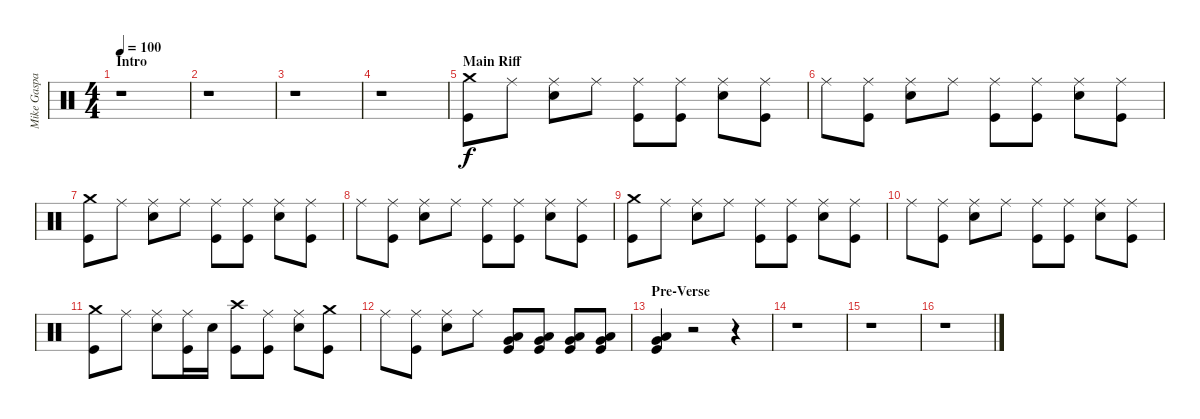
\track ("Mike Gaspar" "Mike Gaspa") {instrument percussion}
\staff {score}
\articulation defaults
\ts (4 4)
\section ("" "Intro")
\tempo 100
\clef neutral
\ks c
r.1{dy f} |
r.1 |
r.1 |
r.1 |
\section ("" "Main Riff")
("Crash medium (hit)" "Kick (hit)").8 "Ride (middle)".8 ("Ride (middle)" "Electric Snare (hit)").8 "Ride (middle)".8 ("Ride (middle)" "Kick (hit)").8 ("Ride (middle)" "Kick (hit)").8 ("Ride (middle)" "Electric Snare (hit)").8 ("Ride (middle)" "Kick (hit)").8 |
"Ride (middle)".8 ("Ride (middle)" "Kick (hit)").8 ("Ride (middle)" "Electric Snare (hit)").8 "Ride (middle)".8 ("Ride (middle)" "Kick (hit)").8 ("Ride (middle)" "Kick (hit)").8 ("Ride (middle)" "Electric Snare (hit)").8 ("Ride (middle)" "Kick (hit)").8 |
("Crash medium (hit)" "Kick (hit)").8 "Ride (middle)".8 ("Ride (middle)" "Electric Snare (hit)").8 "Ride (middle)".8 ("Ride (middle)" "Kick (hit)").8 ("Ride (middle)" "Kick (hit)").8 ("Ride (middle)" "Electric Snare (hit)").8 ("Ride (middle)" "Kick (hit)").8 |
"Ride (middle)".8 ("Ride (middle)" "Kick (hit)").8 ("Ride (middle)" "Electric Snare (hit)").8 "Ride (middle)".8 ("Ride (middle)" "Kick (hit)").8 ("Ride (middle)" "Kick (hit)").8 ("Ride (middle)" "Electric Snare (hit)").8 ("Ride (middle)" "Kick (hit)").8 |
("Crash medium (hit)" "Kick (hit)").8 "Ride (middle)".8 ("Ride (middle)" "Electric Snare (hit)").8 "Ride (middle)".8 ("Ride (middle)" "Kick (hit)").8 ("Ride (middle)" "Kick (hit)").8 ("Ride (middle)" "Electric Snare (hit)").8 ("Ride (middle)" "Kick (hit)").8 |
"Ride (middle)".8 ("Ride (middle)" "Kick (hit)").8 ("Ride (middle)" "Electric Snare (hit)").8 "Ride (middle)".8 ("Ride (middle)" "Kick (hit)").8 ("Ride (middle)" "Kick (hit)").8 ("Ride (middle)" "Electric Snare (hit)").8 ("Ride (middle)" "Kick (hit)").8 |
("Crash medium (hit)" "Kick (hit)").8 "Ride (middle)".8 ("Ride (middle)" "Electric Snare (hit)").8 ("Ride (middle)" "Kick (hit)").16 "Electric Snare (hit)".16 ("Crash high (hit)" "Kick (hit)").8 ("Ride (middle)" "Kick (hit)").8 ("Ride (middle)" "Electric Snare (hit)").8 ("Crash medium (hit)" "Kick (hit)").8 |
"Ride (middle)".8 ("Ride (middle)" "Kick (hit)").8 ("Ride (middle)" "Electric Snare (hit)").8 "Ride (middle)".8 ("Very Low Tom (hit)" "Low Tom (hit)" "Kick (hit)").8 ("Very Low Tom (hit)" "Low Tom (hit)" "Kick (hit)").8 ("Very Low Tom (hit)" "Low Tom (hit)" "Kick (hit)").8 ("Very Low Tom (hit)" "Low Tom (hit)" "Kick (hit)").8 |
\section ("" "Pre-Verse")
("Very Low Tom (hit)" "Low Tom (hit)" "Kick (hit)").4 r.2 r.4 |
r.1 |
r.1 |
r.1
